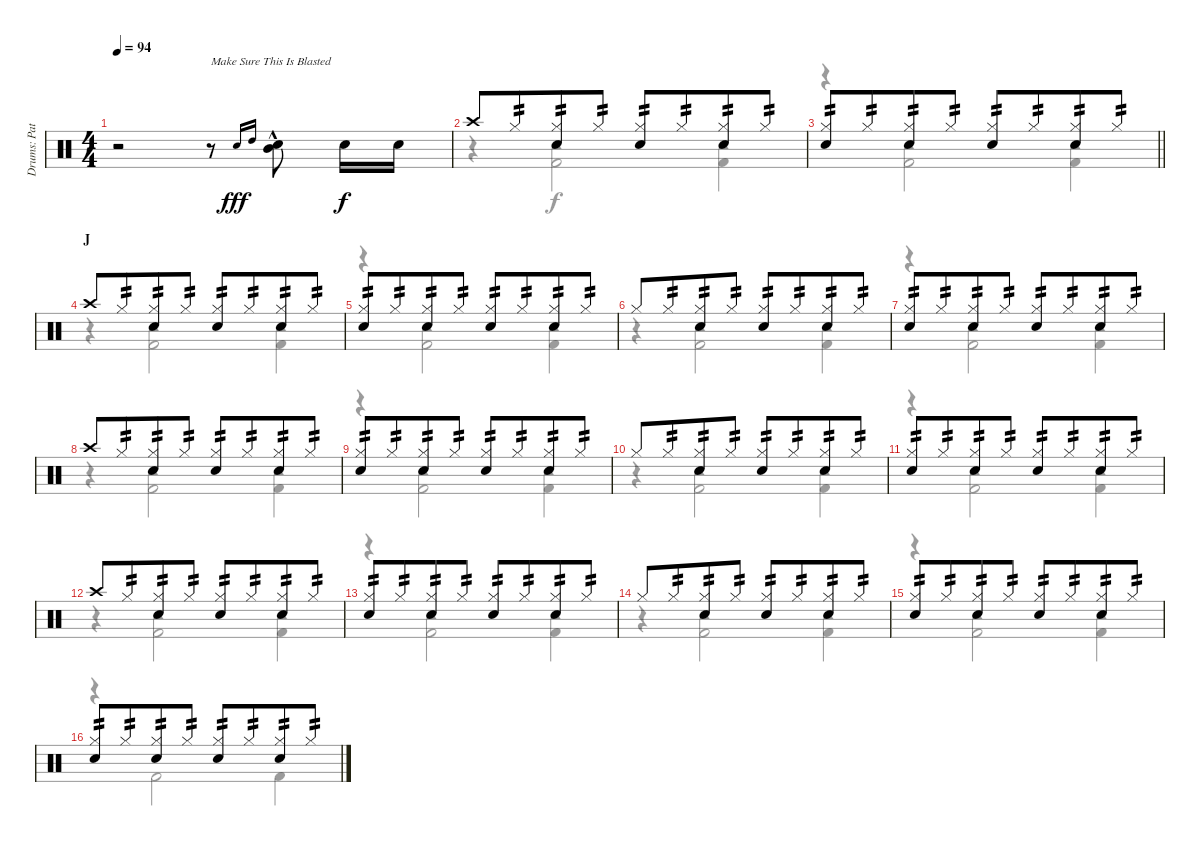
\track ("Drums: Pat" "Drums: Pat") {instrument percussion}
\staff {score}
\articulation defaults
\voice
\ts (4 4)
\tempo 94
\clef neutral
\ks c
r.2{dy f} r.8{txt "Make Sure This Is Blasted"} "Electric Snare (hit)".16{gr onbeat dy fff} "High Tom (hit)".16{gr onbeat} ("Snare (hit) 2"{hac} "Mid Tom (hit)"{hac}).8 "Snare (hit) 2".16{dy f} "Snare (hit) 2".16 |
"Crash high (hit)".8 "Hi-Hat (closed)".8{tp 2 beam merge} ("Hi-Hat (closed)" "Electric Snare (hit)").8{tp 2} "Hi-Hat (closed)".8{tp 2} ("Hi-Hat (closed)" "Electric Snare (hit)").8{tp 2} "Hi-Hat (closed)".8{tp 2 beam merge} ("Hi-Hat (closed)" "Electric Snare (hit)").8{tp 2} "Hi-Hat (closed)".8{tp 2} |
\barLineRight lightlight
("Hi-Hat (closed)" "Electric Snare (hit)").8{tp 2} "Hi-Hat (closed)".8{tp 2 beam merge} ("Hi-Hat (closed)" "Electric Snare (hit)").8{tp 2} "Hi-Hat (closed)".8{tp 2} ("Hi-Hat (closed)" "Electric Snare (hit)").8{tp 2} "Hi-Hat (closed)".8{tp 2 beam merge} ("Hi-Hat (closed)" "Electric Snare (hit)").8{tp 2} "Hi-Hat (closed)".8{tp 2} |
\section ("" "J")
"Crash high (hit)".8 "Hi-Hat (closed)".8{tp 2 beam merge} ("Hi-Hat (closed)" "Electric Snare (hit)").8{tp 2} "Hi-Hat (closed)".8{tp 2} ("Hi-Hat (closed)" "Electric Snare (hit)").8{tp 2} "Hi-Hat (closed)".8{tp 2 beam merge} ("Hi-Hat (closed)" "Electric Snare (hit)").8{tp 2} "Hi-Hat (closed)".8{tp 2} |
("Hi-Hat (closed)" "Electric Snare (hit)").8{tp 2} "Hi-Hat (closed)".8{tp 2 beam merge} ("Hi-Hat (closed)" "Electric Snare (hit)").8{tp 2} "Hi-Hat (closed)".8{tp 2} ("Hi-Hat (closed)" "Electric Snare (hit)").8{tp 2} "Hi-Hat (closed)".8{tp 2 beam merge} ("Hi-Hat (closed)" "Electric Snare (hit)").8{tp 2} "Hi-Hat (closed)".8{tp 2} |
"Hi-Hat (closed)".8 "Hi-Hat (closed)".8{tp 2 beam merge} ("Hi-Hat (closed)" "Electric Snare (hit)").8{tp 2} "Hi-Hat (closed)".8{tp 2} ("Hi-Hat (closed)" "Electric Snare (hit)").8{tp 2} "Hi-Hat (closed)".8{tp 2 beam merge} ("Hi-Hat (closed)" "Electric Snare (hit)").8{tp 2} "Hi-Hat (closed)".8{tp 2} |
("Hi-Hat (closed)" "Electric Snare (hit)").8{tp 2} "Hi-Hat (closed)".8{tp 2 beam merge} ("Hi-Hat (closed)" "Electric Snare (hit)").8{tp 2} "Hi-Hat (closed)".8{tp 2} ("Hi-Hat (closed)" "Electric Snare (hit)").8{tp 2} "Hi-Hat (closed)".8{tp 2 beam merge} ("Hi-Hat (closed)" "Electric Snare (hit)").8{tp 2} "Hi-Hat (closed)".8{tp 2} |
"Crash high (hit)".8 "Hi-Hat (closed)".8{tp 2 beam merge} ("Hi-Hat (closed)" "Electric Snare (hit)").8{tp 2} "Hi-Hat (closed)".8{tp 2} ("Hi-Hat (closed)" "Electric Snare (hit)").8{tp 2} "Hi-Hat (closed)".8{tp 2 beam merge} ("Hi-Hat (closed)" "Electric Snare (hit)").8{tp 2} "Hi-Hat (closed)".8{tp 2} |
("Hi-Hat (closed)" "Electric Snare (hit)").8{tp 2} "Hi-Hat (closed)".8{tp 2 beam merge} ("Hi-Hat (closed)" "Electric Snare (hit)").8{tp 2} "Hi-Hat (closed)".8{tp 2} ("Hi-Hat (closed)" "Electric Snare (hit)").8{tp 2} "Hi-Hat (closed)".8{tp 2 beam merge} ("Hi-Hat (closed)" "Electric Snare (hit)").8{tp 2} "Hi-Hat (closed)".8{tp 2} |
"Hi-Hat (closed)".8 "Hi-Hat (closed)".8{tp 2 beam merge} ("Hi-Hat (closed)" "Electric Snare (hit)").8{tp 2} "Hi-Hat (closed)".8{tp 2} ("Hi-Hat (closed)" "Electric Snare (hit)").8{tp 2} "Hi-Hat (closed)".8{tp 2 beam merge} ("Hi-Hat (closed)" "Electric Snare (hit)").8{tp 2} "Hi-Hat (closed)".8{tp 2} |
("Hi-Hat (closed)" "Electric Snare (hit)").8{tp 2} "Hi-Hat (closed)".8{tp 2 beam merge} ("Hi-Hat (closed)" "Electric Snare (hit)").8{tp 2} "Hi-Hat (closed)".8{tp 2} ("Hi-Hat (closed)" "Electric Snare (hit)").8{tp 2} "Hi-Hat (closed)".8{tp 2 beam merge} ("Hi-Hat (closed)" "Electric Snare (hit)").8{tp 2} "Hi-Hat (closed)".8{tp 2} |
"Crash high (hit)".8 "Hi-Hat (closed)".8{tp 2 beam merge} ("Hi-Hat (closed)" "Electric Snare (hit)").8{tp 2} "Hi-Hat (closed)".8{tp 2} ("Hi-Hat (closed)" "Electric Snare (hit)").8{tp 2} "Hi-Hat (closed)".8{tp 2 beam merge} ("Hi-Hat (closed)" "Electric Snare (hit)").8{tp 2} "Hi-Hat (closed)".8{tp 2} |
("Hi-Hat (closed)" "Electric Snare (hit)").8{tp 2} "Hi-Hat (closed)".8{tp 2 beam merge} ("Hi-Hat (closed)" "Electric Snare (hit)").8{tp 2} "Hi-Hat (closed)".8{tp 2} ("Hi-Hat (closed)" "Electric Snare (hit)").8{tp 2} "Hi-Hat (closed)".8{tp 2 beam merge} ("Hi-Hat (closed)" "Electric Snare (hit)").8{tp 2} "Hi-Hat (closed)".8{tp 2} |
"Hi-Hat (closed)".8 "Hi-Hat (closed)".8{tp 2 beam merge} ("Hi-Hat (closed)" "Electric Snare (hit)").8{tp 2} "Hi-Hat (closed)".8{tp 2} ("Hi-Hat (closed)" "Electric Snare (hit)").8{tp 2} "Hi-Hat (closed)".8{tp 2 beam merge} ("Hi-Hat (closed)" "Electric Snare (hit)").8{tp 2} "Hi-Hat (closed)".8{tp 2} |
("Hi-Hat (closed)" "Electric Snare (hit)").8{tp 2} "Hi-Hat (closed)".8{tp 2 beam merge} ("Hi-Hat (closed)" "Electric Snare (hit)").8{tp 2} "Hi-Hat (closed)".8{tp 2} ("Hi-Hat (closed)" "Electric Snare (hit)").8{tp 2} "Hi-Hat (closed)".8{tp 2 beam merge} ("Hi-Hat (closed)" "Electric Snare (hit)").8{tp 2} "Hi-Hat (closed)".8{tp 2} |
("Hi-Hat (closed)" "Electric Snare (hit)").8{tp 2} "Hi-Hat (closed)".8{tp 2 beam merge} ("Hi-Hat (closed)" "Electric Snare (hit)").8{tp 2} "Hi-Hat (closed)".8{tp 2} ("Hi-Hat (closed)" "Electric Snare (hit)").8{tp 2} "Hi-Hat (closed)".8{tp 2 beam merge} ("Hi-Hat (closed)" "Electric Snare (hit)").8{tp 2} "Hi-Hat (closed)".8{tp 2}
\voice
\clef neutral
\ottava regular
\simile none
\ks c
|
r.4 ("Kick (hit) 2" "Tambourine (hit)").2 ("Kick (hit) 2" "Tambourine (hit)").4 |
\barLineRight lightlight
r.4 ("Kick (hit) 2" "Tambourine (hit)").2 ("Kick (hit) 2" "Tambourine (hit)").4 |
r.4 ("Kick (hit) 2" "Tambourine (hit)").2 ("Kick (hit) 2" "Tambourine (hit)").4 |
r.4 ("Kick (hit) 2" "Tambourine (hit)").2 ("Kick (hit) 2" "Tambourine (hit)").4 |
r.4 ("Kick (hit) 2" "Tambourine (hit)").2 ("Kick (hit) 2" "Tambourine (hit)").4 |
r.4 ("Kick (hit) 2" "Tambourine (hit)").2 ("Kick (hit) 2" "Tambourine (hit)").4 |
r.4 ("Kick (hit) 2" "Tambourine (hit)").2 ("Kick (hit) 2" "Tambourine (hit)").4 |
r.4 ("Kick (hit) 2" "Tambourine (hit)").2 ("Kick (hit) 2" "Tambourine (hit)").4 |
r.4 ("Kick (hit) 2" "Tambourine (hit)").2 ("Kick (hit) 2" "Tambourine (hit)").4 |
r.4 ("Kick (hit) 2" "Tambourine (hit)").2 ("Kick (hit) 2" "Tambourine (hit)").4 |
r.4 ("Kick (hit) 2" "Tambourine (hit)").2 ("Kick (hit) 2" "Tambourine (hit)").4 |
r.4 ("Kick (hit) 2" "Tambourine (hit)").2 ("Kick (hit) 2" "Tambourine (hit)").4 |
r.4 ("Kick (hit) 2" "Tambourine (hit)").2 ("Kick (hit) 2" "Tambourine (hit)").4 |
r.4 ("Kick (hit) 2" "Tambourine (hit)").2 ("Kick (hit) 2" "Tambourine (hit)").4 |
r.4 "Kick (hit) 2".2 "Kick (hit) 2".4
